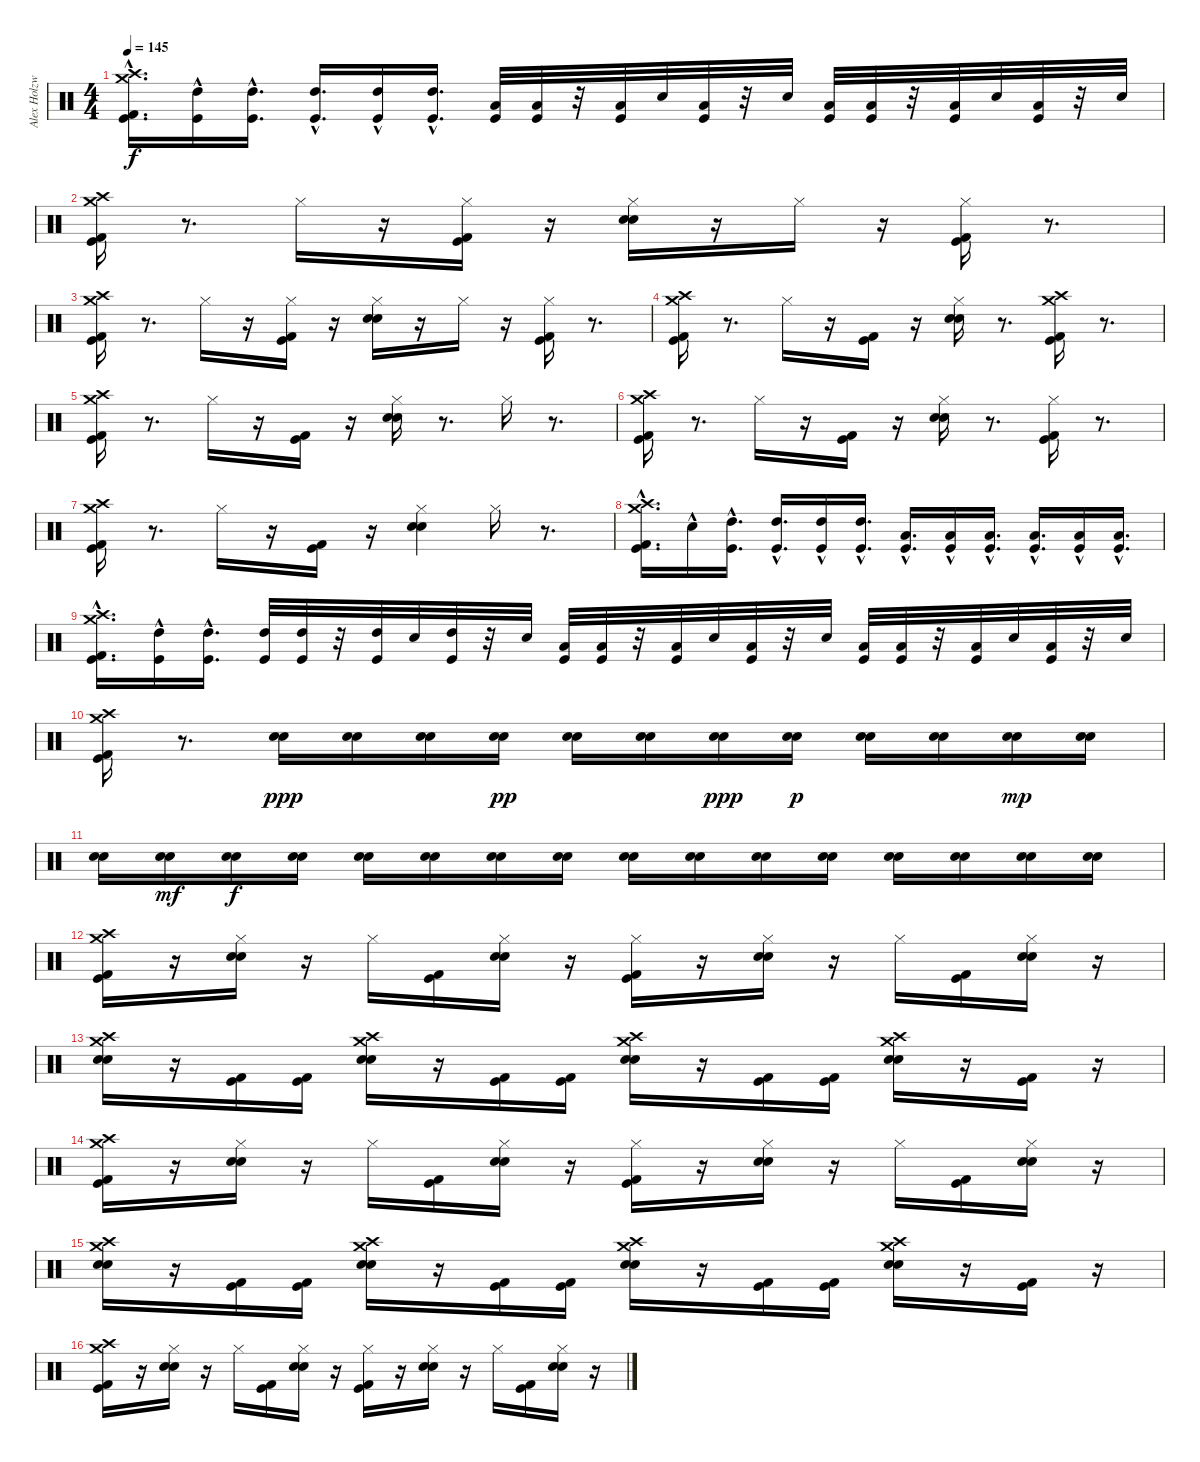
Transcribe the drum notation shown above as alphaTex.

\track ("Alex Holzwarth" "Alex Holzw") {instrument percussion}
\staff {score}
\articulation defaults
\ts (4 4)
\tempo 145
\clef neutral
\ks c
("Crash high (hit)"{hac} "Crash medium (hit)"{hac} "Kick (hit) 2"{hac} "Kick (hit)"{hac}).16{d dy f} ("High Tom (hit)"{hac} "Kick (hit)"{hac}).16 ("High Tom (hit)"{hac} "Kick (hit)"{hac}).16{d} ("High Tom (hit)"{hac} "Kick (hit)"{hac}).16{d} ("High Tom (hit)"{hac} "Kick (hit)"{hac}).16 ("High Tom (hit)"{hac} "Kick (hit)"{hac}).16{d} ("Low Tom (hit)" "Kick (hit)").32 ("Low Tom (hit)" "Kick (hit)").32 r.32 ("Low Tom (hit)" "Kick (hit)").32 "Snare (hit)".32 ("Low Tom (hit)" "Kick (hit)").32 r.32 "Snare (hit)".32 ("Low Floor Tom (hit)" "Kick (hit)").32 ("Low Floor Tom (hit)" "Kick (hit)").32 r.32 ("Low Floor Tom (hit)" "Kick (hit)").32 "Snare (hit)".32 ("Low Floor Tom (hit)" "Kick (hit)").32 r.32 "Snare (hit)".32 |
("Crash high (hit)" "Crash medium (hit)" "Kick (hit) 2" "Kick (hit)").16 r.8{d} "Hi-Hat (closed)".16 r.16 ("Kick (hit) 2" "Kick (hit)" "Hi-Hat (closed)").16 r.16 ("Hi-Hat (closed)" "Electric Snare (hit)" "Snare (hit) 2").16 r.16 "Hi-Hat (closed)".16 r.16 ("Hi-Hat (closed)" "Kick (hit) 2" "Kick (hit)").16 r.8{d} |
("Crash high (hit)" "Crash medium (hit)" "Kick (hit) 2" "Kick (hit)").16 r.8{d} "Hi-Hat (closed)".16 r.16 ("Kick (hit) 2" "Kick (hit)" "Hi-Hat (closed)").16 r.16 ("Hi-Hat (closed)" "Electric Snare (hit)" "Snare (hit) 2").16 r.16 "Hi-Hat (closed)".16 r.16 ("Hi-Hat (closed)" "Kick (hit) 2" "Kick (hit)").16 r.8{d} |
("Crash high (hit)" "Crash medium (hit)" "Kick (hit) 2" "Kick (hit)").16 r.8{d} "Hi-Hat (closed)".16 r.16 ("Kick (hit) 2" "Kick (hit)").16 r.16 ("Hi-Hat (closed)" "Electric Snare (hit)" "Snare (hit) 2").16 r.8{d} ("Crash medium (hit)" "Crash high (hit)" "Kick (hit) 2" "Kick (hit)").16 r.8{d} |
("Crash medium (hit)" "Crash high (hit)" "Kick (hit) 2" "Kick (hit)").16 r.8{d} "Hi-Hat (closed)".16 r.16 ("Kick (hit) 2" "Kick (hit)").16 r.16 ("Electric Snare (hit)" "Snare (hit) 2" "Hi-Hat (closed)").16 r.8{d} "Hi-Hat (closed)".16 r.8{d} |
("Crash high (hit)" "Kick (hit) 2" "Crash medium (hit)" "Kick (hit)").16 r.8{d} "Hi-Hat (closed)".16 r.16 ("Kick (hit) 2" "Kick (hit)").16 r.16 ("Hi-Hat (closed)" "Electric Snare (hit)" "Snare (hit) 2").16 r.8{d} ("Kick (hit) 2" "Kick (hit)" "Hi-Hat (closed)").16 r.8{d} |
("Crash high (hit)" "Crash medium (hit)" "Kick (hit) 2" "Kick (hit)").16 r.8{d} "Hi-Hat (closed)".16 r.16 ("Kick (hit) 2" "Kick (hit)").16 r.16 ("Electric Snare (hit)" "Snare (hit) 2" "Hi-Hat (closed)").4 "Hi-Hat (closed)".16 r.8{d} |
("Crash high (hit)"{hac} "Crash medium (hit)"{hac} "Kick (hit) 2"{hac} "Kick (hit)"{hac}).16{d} "Snare (hit)"{hac}.16 ("High Tom (hit)"{hac} "Kick (hit)"{hac}).16{d} ("High Tom (hit)"{hac} "Kick (hit)"{hac}).16{d} ("High Tom (hit)"{hac} "Kick (hit)"{hac}).16 ("High Tom (hit)"{hac} "Kick (hit)"{hac}).16{d} ("Low Tom (hit)"{hac} "Kick (hit)"{hac}).16{d} ("Low Tom (hit)"{hac} "Kick (hit)"{hac}).16 ("Low Tom (hit)"{hac} "Kick (hit)"{hac}).16{d} ("Kick (hit)"{hac} "Low Floor Tom (hit)"{hac}).16{d} ("Kick (hit)"{hac} "Low Floor Tom (hit)"{hac}).16 ("Kick (hit)"{hac} "Low Floor Tom (hit)"{hac}).16{d} |
("Crash high (hit)"{hac} "Crash medium (hit)"{hac} "Kick (hit) 2"{hac} "Kick (hit)"{hac}).16{d} ("High Tom (hit)"{hac} "Kick (hit)"{hac}).16 ("High Tom (hit)"{hac} "Kick (hit)"{hac}).16{d} ("High Tom (hit)" "Kick (hit)").32 ("High Tom (hit)" "Kick (hit)").32 r.32 ("High Tom (hit)" "Kick (hit)").32 "Snare (hit)".32 ("High Tom (hit)" "Kick (hit)").32 r.32 "Snare (hit)".32 ("Low Tom (hit)" "Kick (hit)").32 ("Low Tom (hit)" "Kick (hit)").32 r.32 ("Low Tom (hit)" "Kick (hit)").32 "Snare (hit)".32 ("Low Tom (hit)" "Kick (hit)").32 r.32 "Snare (hit)".32 ("Low Floor Tom (hit)" "Kick (hit)").32 ("Low Floor Tom (hit)" "Kick (hit)").32 r.32 ("Low Floor Tom (hit)" "Kick (hit)").32 "Snare (hit)".32 ("Low Floor Tom (hit)" "Kick (hit)").32 r.32 "Snare (hit)".32 |
("Crash high (hit)" "Crash medium (hit)" "Kick (hit) 2" "Kick (hit)").16 r.8{d} ("Snare (hit) 2" "Electric Snare (hit)").16{dy ppp} ("Electric Snare (hit)" "Snare (hit) 2").16 ("Electric Snare (hit)" "Snare (hit) 2").16 ("Electric Snare (hit)" "Snare (hit) 2").16{dy pp} ("Electric Snare (hit)" "Snare (hit) 2").16 ("Electric Snare (hit)" "Snare (hit) 2").16 ("Snare (hit) 2" "Electric Snare (hit)").16{dy ppp} ("Snare (hit) 2" "Electric Snare (hit)").16{dy p} ("Snare (hit) 2" "Electric Snare (hit)").16 ("Electric Snare (hit)" "Snare (hit) 2").16 ("Electric Snare (hit)" "Snare (hit) 2").16{dy mp} ("Electric Snare (hit)" "Snare (hit) 2").16 |
("Electric Snare (hit)" "Snare (hit) 2").16 ("Electric Snare (hit)" "Snare (hit) 2").16{dy mf} ("Electric Snare (hit)" "Snare (hit) 2").16{dy f} ("Electric Snare (hit)" "Snare (hit) 2").16 ("Electric Snare (hit)" "Snare (hit) 2").16 ("Electric Snare (hit)" "Snare (hit) 2").16 ("Electric Snare (hit)" "Snare (hit) 2").16 ("Electric Snare (hit)" "Snare (hit) 2").16 ("Electric Snare (hit)" "Snare (hit) 2").16 ("Electric Snare (hit)" "Snare (hit) 2").16 ("Electric Snare (hit)" "Snare (hit) 2").16 ("Snare (hit) 2" "Electric Snare (hit)").16 ("Electric Snare (hit)" "Snare (hit) 2").16 ("Electric Snare (hit)" "Snare (hit) 2").16 ("Electric Snare (hit)" "Snare (hit) 2").16 ("Electric Snare (hit)" "Snare (hit) 2").16 |
("Crash high (hit)" "Crash medium (hit)" "Kick (hit) 2" "Kick (hit)").16 r.16 ("Hi-Hat (closed)" "Electric Snare (hit)" "Snare (hit) 2").16 r.16 "Hi-Hat (closed)".16 ("Kick (hit) 2" "Kick (hit)").16 ("Electric Snare (hit)" "Snare (hit) 2" "Hi-Hat (closed)").16 r.16 ("Hi-Hat (closed)" "Kick (hit)" "Kick (hit) 2").16 r.16 ("Hi-Hat (closed)" "Electric Snare (hit)" "Snare (hit) 2").16 r.16 "Hi-Hat (closed)".16 ("Kick (hit) 2" "Kick (hit)").16 ("Hi-Hat (closed)" "Electric Snare (hit)" "Snare (hit) 2").16 r.16 |
("Crash medium (hit)" "Crash high (hit)" "Electric Snare (hit)" "Snare (hit) 2").16 r.16 ("Kick (hit) 2" "Kick (hit)").16 ("Kick (hit) 2" "Kick (hit)").16 ("Crash medium (hit)" "Crash high (hit)" "Electric Snare (hit)" "Snare (hit) 2").16 r.16 ("Kick (hit) 2" "Kick (hit)").16 ("Kick (hit) 2" "Kick (hit)").16 ("Crash high (hit)" "Crash medium (hit)" "Electric Snare (hit)" "Snare (hit) 2").16 r.16 ("Kick (hit) 2" "Kick (hit)").16 ("Kick (hit) 2" "Kick (hit)").16 ("Crash high (hit)" "Crash medium (hit)" "Electric Snare (hit)" "Snare (hit) 2").16 r.16 ("Kick (hit) 2" "Kick (hit)").16 r.16 |
("Crash high (hit)" "Crash medium (hit)" "Kick (hit) 2" "Kick (hit)").16 r.16 ("Hi-Hat (closed)" "Electric Snare (hit)" "Snare (hit) 2").16 r.16 "Hi-Hat (closed)".16 ("Kick (hit) 2" "Kick (hit)").16 ("Electric Snare (hit)" "Snare (hit) 2" "Hi-Hat (closed)").16 r.16 ("Hi-Hat (closed)" "Kick (hit)" "Kick (hit) 2").16 r.16 ("Hi-Hat (closed)" "Electric Snare (hit)" "Snare (hit) 2").16 r.16 "Hi-Hat (closed)".16 ("Kick (hit) 2" "Kick (hit)").16 ("Hi-Hat (closed)" "Electric Snare (hit)" "Snare (hit) 2").16 r.16 |
("Crash medium (hit)" "Crash high (hit)" "Electric Snare (hit)" "Snare (hit) 2").16 r.16 ("Kick (hit) 2" "Kick (hit)").16 ("Kick (hit) 2" "Kick (hit)").16 ("Crash medium (hit)" "Crash high (hit)" "Electric Snare (hit)" "Snare (hit) 2").16 r.16 ("Kick (hit) 2" "Kick (hit)").16 ("Kick (hit) 2" "Kick (hit)").16 ("Crash high (hit)" "Crash medium (hit)" "Electric Snare (hit)" "Snare (hit) 2").16 r.16 ("Kick (hit) 2" "Kick (hit)").16 ("Kick (hit) 2" "Kick (hit)").16 ("Crash high (hit)" "Crash medium (hit)" "Electric Snare (hit)" "Snare (hit) 2").16 r.16 ("Kick (hit) 2" "Kick (hit)").16 r.16 |
("Crash high (hit)" "Crash medium (hit)" "Kick (hit) 2" "Kick (hit)").16 r.16 ("Hi-Hat (closed)" "Electric Snare (hit)" "Snare (hit) 2").16 r.16 "Hi-Hat (closed)".16 ("Kick (hit) 2" "Kick (hit)").16 ("Electric Snare (hit)" "Snare (hit) 2" "Hi-Hat (closed)").16 r.16 ("Hi-Hat (closed)" "Kick (hit)" "Kick (hit) 2").16 r.16 ("Hi-Hat (closed)" "Electric Snare (hit)" "Snare (hit) 2").16 r.16 "Hi-Hat (closed)".16 ("Kick (hit) 2" "Kick (hit)").16 ("Hi-Hat (closed)" "Electric Snare (hit)" "Snare (hit) 2").16 r.16
